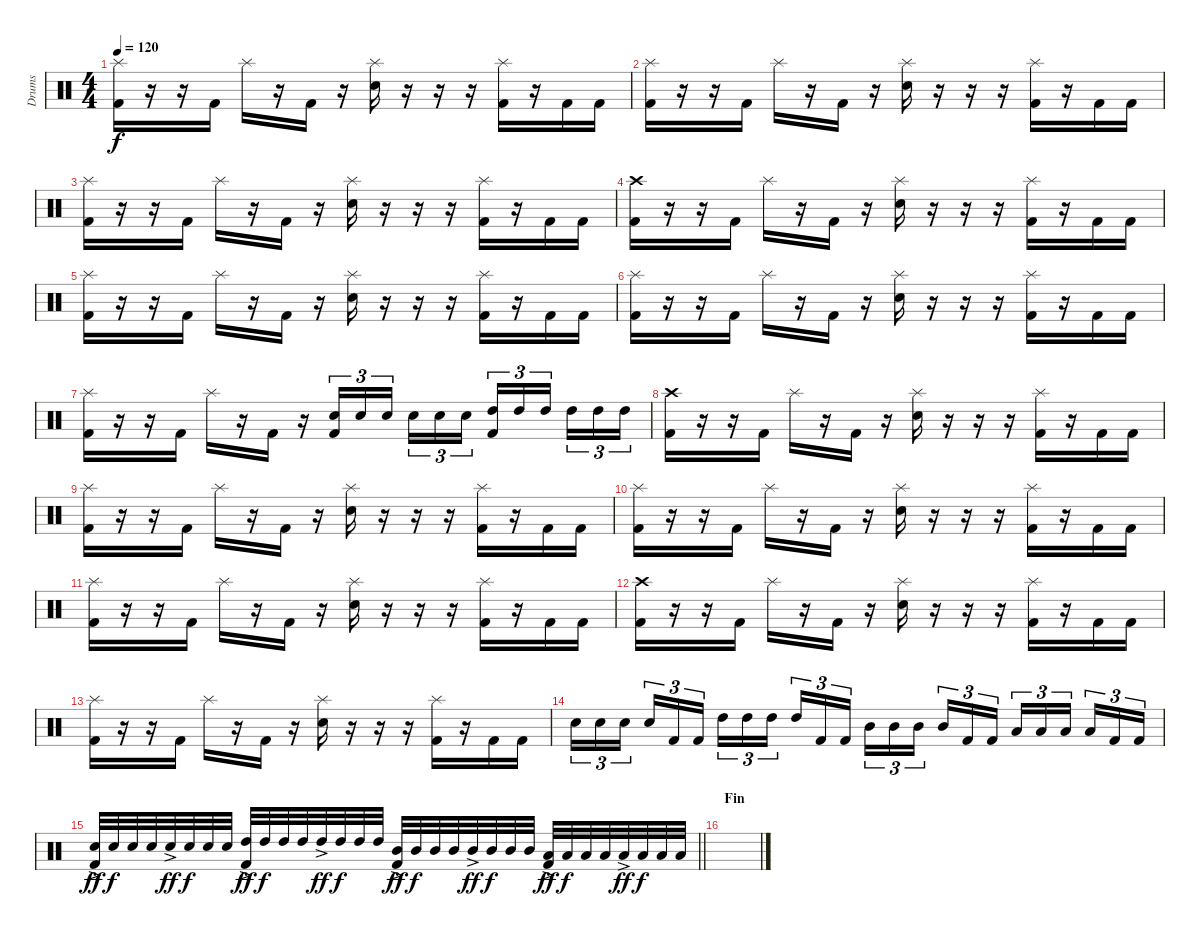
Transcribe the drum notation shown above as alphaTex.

\track ("Drums" "Drums") {instrument percussion}
\staff {score}
\articulation defaults
\ts (4 4)
\tempo 120
\clef neutral
\ks c
("Splash (hit)" "Kick (hit) 2").16{dy f} r.16 r.16 "Kick (hit) 2".16 "Splash (hit)".16 r.16 "Kick (hit) 2".16 r.16 ("Splash (hit)" "Snare (hit) 2").16 r.16 r.16 r.16 ("Splash (hit)" "Kick (hit) 2").16 r.16 "Kick (hit) 2".16 "Kick (hit) 2".16 |
("Splash (hit)" "Kick (hit) 2").16 r.16 r.16 "Kick (hit) 2".16 "Splash (hit)".16 r.16 "Kick (hit) 2".16 r.16 ("Splash (hit)" "Snare (hit) 2").16 r.16 r.16 r.16 ("Splash (hit)" "Kick (hit) 2").16 r.16 "Kick (hit) 2".16 "Kick (hit) 2".16 |
("Splash (hit)" "Kick (hit) 2").16 r.16 r.16 "Kick (hit) 2".16 "Splash (hit)".16 r.16 "Kick (hit) 2".16 r.16 ("Splash (hit)" "Snare (hit) 2").16 r.16 r.16 r.16 ("Splash (hit)" "Kick (hit) 2").16 r.16 "Kick (hit) 2".16 "Kick (hit) 2".16 |
("Crash high (hit)" "Kick (hit) 2").16 r.16 r.16 "Kick (hit) 2".16 "Splash (hit)".16 r.16 "Kick (hit) 2".16 r.16 ("Splash (hit)" "Snare (hit) 2").16 r.16 r.16 r.16 ("Splash (hit)" "Kick (hit) 2").16 r.16 "Kick (hit) 2".16 "Kick (hit) 2".16 |
("Splash (hit)" "Kick (hit) 2").16 r.16 r.16 "Kick (hit) 2".16 "Splash (hit)".16 r.16 "Kick (hit) 2".16 r.16 ("Splash (hit)" "Snare (hit) 2").16 r.16 r.16 r.16 ("Splash (hit)" "Kick (hit) 2").16 r.16 "Kick (hit) 2".16 "Kick (hit) 2".16 |
("Splash (hit)" "Kick (hit) 2").16 r.16 r.16 "Kick (hit) 2".16 "Splash (hit)".16 r.16 "Kick (hit) 2".16 r.16 ("Splash (hit)" "Snare (hit) 2").16 r.16 r.16 r.16 ("Splash (hit)" "Kick (hit) 2").16 r.16 "Kick (hit) 2".16 "Kick (hit) 2".16 |
("Splash (hit)" "Kick (hit) 2").16 r.16 r.16 "Kick (hit) 2".16 "Splash (hit)".16 r.16 "Kick (hit) 2".16 r.16 ("Snare (hit) 2" "Kick (hit) 2").16{tu (3 2)} "Snare (hit) 2".16{tu (3 2)} "Snare (hit) 2".16{tu (3 2) beam splitsecondary} "Snare (hit) 2".16{tu (3 2)} "Snare (hit) 2".16{tu (3 2)} "Snare (hit) 2".16{tu (3 2)} ("High Tom (hit)" "Kick (hit) 2").16{tu (3 2)} "High Tom (hit)".16{tu (3 2)} "High Tom (hit)".16{tu (3 2) beam splitsecondary} "High Tom (hit)".16{tu (3 2)} "High Tom (hit)".16{tu (3 2)} "High Tom (hit)".16{tu (3 2)} |
("Crash high (hit)" "Kick (hit) 2").16 r.16 r.16 "Kick (hit) 2".16 "Splash (hit)".16 r.16 "Kick (hit) 2".16 r.16 ("Splash (hit)" "Snare (hit) 2").16 r.16 r.16 r.16 ("Splash (hit)" "Kick (hit) 2").16 r.16 "Kick (hit) 2".16 "Kick (hit) 2".16 |
("Splash (hit)" "Kick (hit) 2").16 r.16 r.16 "Kick (hit) 2".16 "Splash (hit)".16 r.16 "Kick (hit) 2".16 r.16 ("Splash (hit)" "Snare (hit) 2").16 r.16 r.16 r.16 ("Splash (hit)" "Kick (hit) 2").16 r.16 "Kick (hit) 2".16 "Kick (hit) 2".16 |
("Splash (hit)" "Kick (hit) 2").16 r.16 r.16 "Kick (hit) 2".16 "Splash (hit)".16 r.16 "Kick (hit) 2".16 r.16 ("Splash (hit)" "Snare (hit) 2").16 r.16 r.16 r.16 ("Splash (hit)" "Kick (hit) 2").16 r.16 "Kick (hit) 2".16 "Kick (hit) 2".16 |
("Splash (hit)" "Kick (hit) 2").16 r.16 r.16 "Kick (hit) 2".16 "Splash (hit)".16 r.16 "Kick (hit) 2".16 r.16 ("Splash (hit)" "Snare (hit) 2").16 r.16 r.16 r.16 ("Splash (hit)" "Kick (hit) 2").16 r.16 "Kick (hit) 2".16 "Kick (hit) 2".16 |
("Crash high (hit)" "Kick (hit) 2").16 r.16 r.16 "Kick (hit) 2".16 "Splash (hit)".16 r.16 "Kick (hit) 2".16 r.16 ("Splash (hit)" "Snare (hit) 2").16 r.16 r.16 r.16 ("Splash (hit)" "Kick (hit) 2").16 r.16 "Kick (hit) 2".16 "Kick (hit) 2".16 |
("Splash (hit)" "Kick (hit) 2").16 r.16 r.16 "Kick (hit) 2".16 "Splash (hit)".16 r.16 "Kick (hit) 2".16 r.16 ("Splash (hit)" "Snare (hit) 2").16 r.16 r.16 r.16 ("Splash (hit)" "Kick (hit) 2").16 r.16 "Kick (hit) 2".16 "Kick (hit) 2".16 |
"Snare (hit) 2".16{tu (3 2)} "Snare (hit) 2".16{tu (3 2)} "Snare (hit) 2".16{tu (3 2) beam splitsecondary} "Snare (hit) 2".16{tu (3 2)} "Kick (hit) 2".16{tu (3 2)} "Kick (hit) 2".16{tu (3 2)} "High Tom (hit)".16{tu (3 2)} "High Tom (hit)".16{tu (3 2)} "High Tom (hit)".16{tu (3 2) beam splitsecondary} "High Tom (hit)".16{tu (3 2)} "Kick (hit) 2".16{tu (3 2)} "Kick (hit) 2".16{tu (3 2)} "Mid Tom (hit)".16{tu (3 2)} "Mid Tom (hit)".16{tu (3 2)} "Mid Tom (hit)".16{tu (3 2) beam splitsecondary} "Mid Tom (hit)".16{tu (3 2)} "Kick (hit) 2".16{tu (3 2)} "Kick (hit) 2".16{tu (3 2)} "Low Tom (hit)".16{tu (3 2)} "Low Tom (hit)".16{tu (3 2)} "Low Tom (hit)".16{tu (3 2) beam splitsecondary} "Low Tom (hit)".16{tu (3 2)} "Kick (hit) 2".16{tu (3 2)} "Kick (hit) 2".16{tu (3 2)} |
\barLineRight lightlight
("Snare (hit) 2"{ac} "Kick (hit) 2").32{dy ff} "Snare (hit) 2".32{dy f} "Snare (hit) 2".32 "Snare (hit) 2".32 "Snare (hit) 2"{ac}.32{dy ff} "Snare (hit) 2".32{dy f} "Snare (hit) 2".32 "Snare (hit) 2".32 ("High Tom (hit)"{ac} "Kick (hit) 2").32{dy ff} "High Tom (hit)".32{dy f} "High Tom (hit)".32 "High Tom (hit)".32 "High Tom (hit)"{ac}.32{dy ff} "High Tom (hit)".32{dy f} "High Tom (hit)".32 "High Tom (hit)".32 ("Mid Tom (hit)"{ac} "Kick (hit) 2").32{dy ff} "Mid Tom (hit)".32{dy f} "Mid Tom (hit)".32 "Mid Tom (hit)".32 "Mid Tom (hit)"{ac}.32{dy ff} "Mid Tom (hit)".32{dy f} "Mid Tom (hit)".32 "Mid Tom (hit)".32 ("Low Tom (hit)"{ac} "Kick (hit) 2").32{dy ff} "Low Tom (hit)".32{dy f} "Low Tom (hit)".32 "Low Tom (hit)".32 "Low Tom (hit)"{ac}.32{dy ff} "Low Tom (hit)".32{dy f} "Low Tom (hit)".32 "Low Tom (hit)".32 |
\section ("" "Fin")
